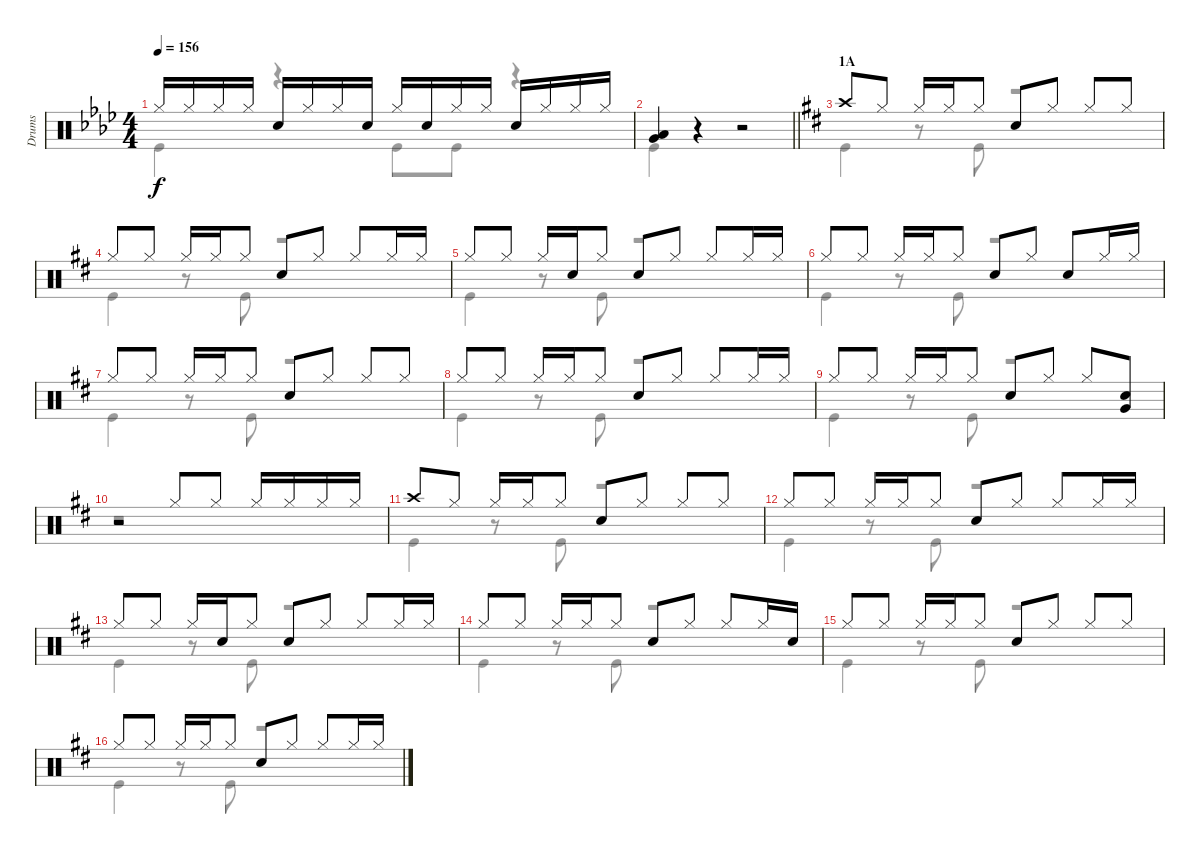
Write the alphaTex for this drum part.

\track ("Drums" "Drums") {instrument percussion}
\staff {score}
\articulation defaults
\voice
\ts (4 4)
\tempo 156
\clef neutral
\ks ab "Hi-Hat (closed)".16{dy f} "Hi-Hat (closed)".16 "Hi-Hat (closed)".16 "Hi-Hat (closed)".16 "Snare (hit) 2".16 "Hi-Hat (closed)".16 "Hi-Hat (closed)".16 "Snare (hit) 2".16 "Hi-Hat (closed)".16 "Snare (hit) 2".16 "Hi-Hat (closed)".16 "Hi-Hat (closed)".16 "Snare (hit) 2".16 "Hi-Hat (closed)".16 "Hi-Hat (closed)".16 "Hi-Hat (closed)".16
|
\barLineRight lightlight
("Low Tom (hit)" "Very Low Tom (hit)").4 r.4 r.2 |
\section ("" "1A")
\ks d "Crash high (hit)".8 "Hi-Hat (closed)".8 "Hi-Hat (closed)".16 "Hi-Hat (closed)".16 "Hi-Hat (closed)".8 "Snare (hit) 2".8 "Hi-Hat (closed)".8 "Hi-Hat (closed)".8 "Hi-Hat (closed)".8
|
"Hi-Hat (closed)".8 "Hi-Hat (closed)".8 "Hi-Hat (closed)".16 "Hi-Hat (closed)".16 "Hi-Hat (closed)".8 "Snare (hit) 2".8 "Hi-Hat (closed)".8 "Hi-Hat (closed)".8 "Hi-Hat (closed)".16 "Hi-Hat (closed)".16 |
"Hi-Hat (closed)".8 "Hi-Hat (closed)".8 "Hi-Hat (closed)".16 "Snare (hit) 2".16 "Hi-Hat (closed)".8 "Snare (hit) 2".8 "Hi-Hat (closed)".8 "Hi-Hat (closed)".8 "Hi-Hat (closed)".16 "Hi-Hat (closed)".16 |
"Hi-Hat (closed)".8 "Hi-Hat (closed)".8 "Hi-Hat (closed)".16 "Hi-Hat (closed)".16 "Hi-Hat (closed)".8 "Snare (hit) 2".8 "Hi-Hat (closed)".8 "Snare (hit) 2".8 "Hi-Hat (closed)".16 "Hi-Hat (closed)".16 |
"Hi-Hat (closed)".8 "Hi-Hat (closed)".8 "Hi-Hat (closed)".16 "Hi-Hat (closed)".16 "Hi-Hat (closed)".8 "Snare (hit) 2".8 "Hi-Hat (closed)".8 "Hi-Hat (closed)".8 "Hi-Hat (closed)".8 |
"Hi-Hat (closed)".8 "Hi-Hat (closed)".8 "Hi-Hat (closed)".16 "Hi-Hat (closed)".16 "Hi-Hat (closed)".8 "Snare (hit) 2".8 "Hi-Hat (closed)".8 "Hi-Hat (closed)".8 "Hi-Hat (closed)".16 "Hi-Hat (closed)".16 |
"Hi-Hat (closed)".8 "Hi-Hat (closed)".8 "Hi-Hat (closed)".16 "Hi-Hat (closed)".16 "Hi-Hat (closed)".8 "Snare (hit) 2".8 "Hi-Hat (closed)".8 "Hi-Hat (closed)".8 ("Snare (hit) 2" "Very Low Tom (hit)").8 |
r.2 "Hi-Hat (closed)".8 "Hi-Hat (closed)".8 "Hi-Hat (closed)".16 "Hi-Hat (closed)".16 "Hi-Hat (closed)".16 "Hi-Hat (closed)".16 |
"Crash high (hit)".8 "Hi-Hat (closed)".8 "Hi-Hat (closed)".16 "Hi-Hat (closed)".16 "Hi-Hat (closed)".8 "Snare (hit) 2".8 "Hi-Hat (closed)".8 "Hi-Hat (closed)".8 "Hi-Hat (closed)".8 |
"Hi-Hat (closed)".8 "Hi-Hat (closed)".8 "Hi-Hat (closed)".16 "Hi-Hat (closed)".16 "Hi-Hat (closed)".8 "Snare (hit) 2".8 "Hi-Hat (closed)".8 "Hi-Hat (closed)".8 "Hi-Hat (closed)".16 "Hi-Hat (closed)".16 |
"Hi-Hat (closed)".8 "Hi-Hat (closed)".8 "Hi-Hat (closed)".16 "Snare (hit) 2".16 "Hi-Hat (closed)".8 "Snare (hit) 2".8 "Hi-Hat (closed)".8 "Hi-Hat (closed)".8 "Hi-Hat (closed)".16 "Hi-Hat (closed)".16 |
"Hi-Hat (closed)".8 "Hi-Hat (closed)".8 "Hi-Hat (closed)".16 "Hi-Hat (closed)".16 "Hi-Hat (closed)".8 "Snare (hit) 2".8 "Hi-Hat (closed)".8 "Hi-Hat (closed)".8 "Hi-Hat (closed)".16 "Snare (hit) 2".16 |
"Hi-Hat (closed)".8 "Hi-Hat (closed)".8 "Hi-Hat (closed)".16 "Hi-Hat (closed)".16 "Hi-Hat (closed)".8 "Snare (hit) 2".8 "Hi-Hat (closed)".8 "Hi-Hat (closed)".8 "Hi-Hat (closed)".8 |
"Hi-Hat (closed)".8 "Hi-Hat (closed)".8 "Hi-Hat (closed)".16 "Hi-Hat (closed)".16 "Hi-Hat (closed)".8 "Snare (hit) 2".8 "Hi-Hat (closed)".8 "Hi-Hat (closed)".8 "Hi-Hat (closed)".16 "Hi-Hat (closed)".16
\voice
\clef neutral
\ottava regular
\simile none
\ks ab "Kick (hit)".4{dy f}
r.4 "Kick (hit)".8 "Kick (hit)".8 r.4 |
\barLineRight lightlight "Kick (hit)".4
r.4 r.2 |
\ks d "Kick (hit)".4
r.8 "Kick (hit)".8 r.2 |
"Kick (hit)".4 r.8 "Kick (hit)".8 r.2 |
"Kick (hit)".4 r.8 "Kick (hit)".8 r.2 |
"Kick (hit)".4 r.8 "Kick (hit)".8 r.2 |
"Kick (hit)".4 r.8 "Kick (hit)".8 r.2 |
"Kick (hit)".4 r.8 "Kick (hit)".8 r.2 |
"Kick (hit)".4 r.8 "Kick (hit)".8 r.2 |
r.1 |
"Kick (hit)".4 r.8 "Kick (hit)".8 r.2 |
"Kick (hit)".4 r.8 "Kick (hit)".8 r.2 |
"Kick (hit)".4 r.8 "Kick (hit)".8 r.2 |
"Kick (hit)".4 r.8 "Kick (hit)".8 r.2 |
"Kick (hit)".4 r.8 "Kick (hit)".8 r.2 |
"Kick (hit)".4 r.8 "Kick (hit)".8 r.2
